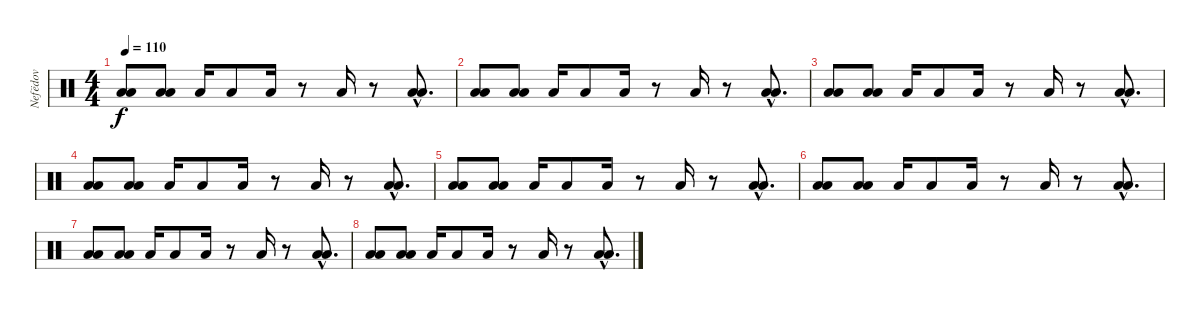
\track ("Nefёdov" "Nefёdov") {instrument percussion}
\staff {score}
\articulation defaults
\ts (4 4)
\tempo 110
\clef neutral
\ks c
("Low Tom (hit)" "Low Floor Tom (hit)").8{dy f} ("Low Tom (hit)" "Low Floor Tom (hit)").8 "Low Floor Tom (hit)".16 "Low Floor Tom (hit)".8 "Low Floor Tom (hit)".16 r.8 "Low Floor Tom (hit)".16 r.8 ("Low Tom (hit)"{hac} "Low Floor Tom (hit)"{hac}).8{d} |
("Low Tom (hit)" "Low Floor Tom (hit)").8 ("Low Tom (hit)" "Low Floor Tom (hit)").8 "Low Floor Tom (hit)".16 "Low Floor Tom (hit)".8 "Low Floor Tom (hit)".16 r.8 "Low Floor Tom (hit)".16 r.8 ("Low Tom (hit)"{hac} "Low Floor Tom (hit)"{hac}).8{d} |
("Low Tom (hit)" "Low Floor Tom (hit)").8 ("Low Tom (hit)" "Low Floor Tom (hit)").8 "Low Floor Tom (hit)".16 "Low Floor Tom (hit)".8 "Low Floor Tom (hit)".16 r.8 "Low Floor Tom (hit)".16 r.8 ("Low Tom (hit)"{hac} "Low Floor Tom (hit)"{hac}).8{d} |
("Low Tom (hit)" "Low Floor Tom (hit)").8 ("Low Tom (hit)" "Low Floor Tom (hit)").8 "Low Floor Tom (hit)".16 "Low Floor Tom (hit)".8 "Low Floor Tom (hit)".16 r.8 "Low Floor Tom (hit)".16 r.8 ("Low Tom (hit)"{hac} "Low Floor Tom (hit)"{hac}).8{d} |
("Low Tom (hit)" "Low Floor Tom (hit)").8 ("Low Tom (hit)" "Low Floor Tom (hit)").8 "Low Floor Tom (hit)".16 "Low Floor Tom (hit)".8 "Low Floor Tom (hit)".16 r.8 "Low Floor Tom (hit)".16 r.8 ("Low Tom (hit)"{hac} "Low Floor Tom (hit)"{hac}).8{d} |
("Low Tom (hit)" "Low Floor Tom (hit)").8 ("Low Tom (hit)" "Low Floor Tom (hit)").8 "Low Floor Tom (hit)".16 "Low Floor Tom (hit)".8 "Low Floor Tom (hit)".16 r.8 "Low Floor Tom (hit)".16 r.8 ("Low Tom (hit)"{hac} "Low Floor Tom (hit)"{hac}).8{d} |
("Low Tom (hit)" "Low Floor Tom (hit)").8 ("Low Tom (hit)" "Low Floor Tom (hit)").8 "Low Floor Tom (hit)".16 "Low Floor Tom (hit)".8 "Low Floor Tom (hit)".16 r.8 "Low Floor Tom (hit)".16 r.8 ("Low Tom (hit)"{hac} "Low Floor Tom (hit)"{hac}).8{d} |
("Low Tom (hit)" "Low Floor Tom (hit)").8 ("Low Tom (hit)" "Low Floor Tom (hit)").8 "Low Floor Tom (hit)".16 "Low Floor Tom (hit)".8 "Low Floor Tom (hit)".16 r.8 "Low Floor Tom (hit)".16 r.8 ("Low Tom (hit)"{hac} "Low Floor Tom (hit)"{hac}).8{d}
